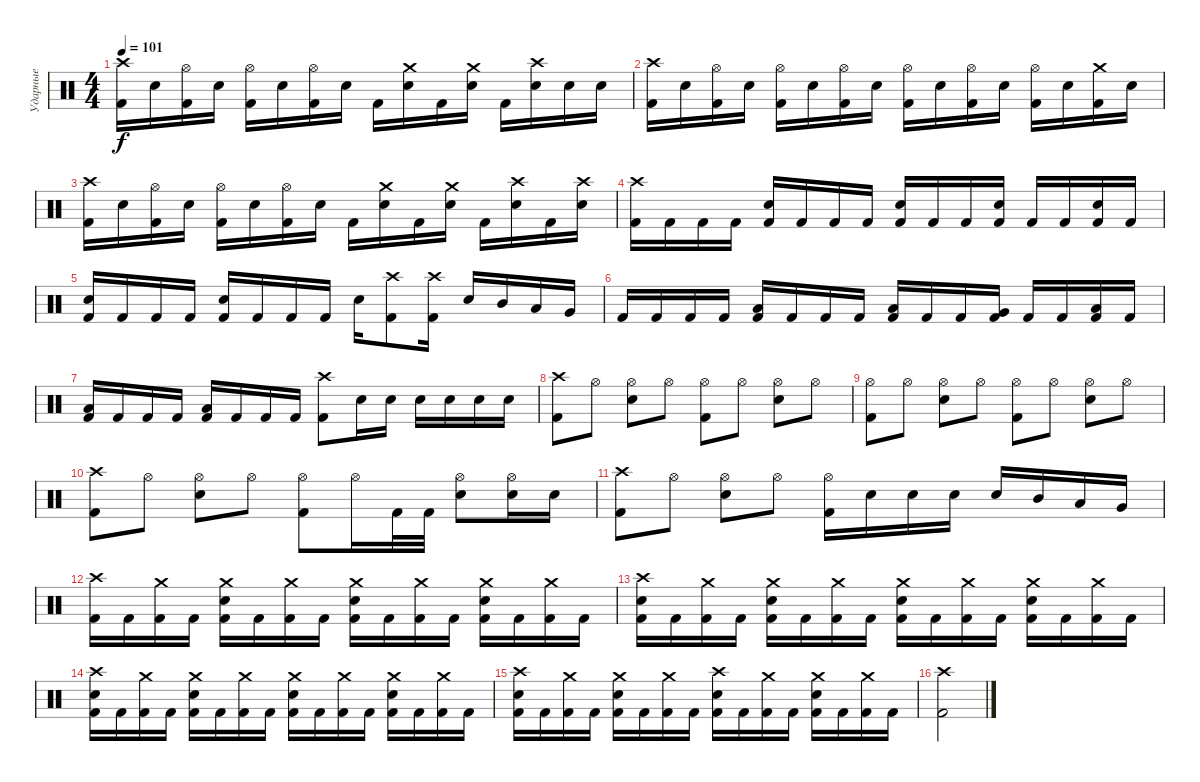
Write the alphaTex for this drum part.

\track ("Ударные" "Ударные") {instrument percussion}
\staff {score}
\articulation defaults
\ts (4 4)
\tempo 101
\clef neutral
\ks c
("Crash high (hit)" "Kick (hit) 2").16{dy f} "Electric Snare (hit)".16 ("Hi-Hat (open)" "Kick (hit) 2").16 "Electric Snare (hit)".16 ("Hi-Hat (open)" "Kick (hit) 2").16 "Electric Snare (hit)".16 ("Hi-Hat (open)" "Kick (hit) 2").16 "Electric Snare (hit)".16 "Kick (hit) 2".16 ("Crash medium (hit)" "Electric Snare (hit)").16 "Kick (hit) 2".16 ("Crash medium (hit)" "Electric Snare (hit)").16 "Kick (hit) 2".16 ("Crash high (hit)" "Electric Snare (hit)").16 "Electric Snare (hit)".16 "Electric Snare (hit)".16 |
("Crash high (hit)" "Kick (hit) 2").16 "Electric Snare (hit)".16 ("Hi-Hat (open)" "Kick (hit) 2").16 "Electric Snare (hit)".16 ("Hi-Hat (open)" "Kick (hit) 2").16 "Electric Snare (hit)".16 ("Hi-Hat (open)" "Kick (hit) 2").16 "Electric Snare (hit)".16 ("Hi-Hat (open)" "Kick (hit) 2").16 "Electric Snare (hit)".16 ("Hi-Hat (open)" "Kick (hit) 2").16 "Electric Snare (hit)".16 ("Hi-Hat (open)" "Kick (hit) 2").16 "Electric Snare (hit)".16 ("Crash medium (hit)" "Kick (hit) 2").16 "Electric Snare (hit)".16 |
("Crash high (hit)" "Kick (hit) 2").16 "Electric Snare (hit)".16 ("Hi-Hat (open)" "Kick (hit) 2").16 "Electric Snare (hit)".16 ("Hi-Hat (open)" "Kick (hit) 2").16 "Electric Snare (hit)".16 ("Hi-Hat (open)" "Kick (hit) 2").16 "Electric Snare (hit)".16 "Kick (hit) 2".16 ("Crash medium (hit)" "Electric Snare (hit)").16 "Kick (hit) 2".16 ("Crash medium (hit)" "Electric Snare (hit)").16 "Kick (hit) 2".16 ("Crash high (hit)" "Electric Snare (hit)").16 "Kick (hit) 2".16 ("Crash high (hit)" "Electric Snare (hit)").16 |
("Crash high (hit)" "Kick (hit) 2").16 "Kick (hit) 2".16 "Kick (hit) 2".16 "Kick (hit) 2".16 ("Electric Snare (hit)" "Kick (hit) 2").16 "Kick (hit) 2".16 "Kick (hit) 2".16 "Kick (hit) 2".16 ("Electric Snare (hit)" "Kick (hit) 2").16 "Kick (hit) 2".16 "Kick (hit) 2".16 ("Electric Snare (hit)" "Kick (hit) 2").16 "Kick (hit) 2".16 "Kick (hit) 2".16 ("Electric Snare (hit)" "Kick (hit) 2").16 "Kick (hit) 2".16 |
("Electric Snare (hit)" "Kick (hit) 2").16 "Kick (hit) 2".16 "Kick (hit) 2".16 "Kick (hit) 2".16 ("Electric Snare (hit)" "Kick (hit) 2").16 "Kick (hit) 2".16 "Kick (hit) 2".16 "Kick (hit) 2".16 "Electric Snare (hit)".16 ("Crash high (hit)" "Kick (hit) 2").8 ("Crash high (hit)" "Kick (hit) 2").16 "Electric Snare (hit)".16 "Mid Tom (hit)".16 "Low Tom (hit)".16 "Very Low Tom (hit)".16 |
"Kick (hit) 2".16 "Kick (hit) 2".16 "Kick (hit) 2".16 "Kick (hit) 2".16 ("Low Tom (hit)" "Kick (hit) 2").16 "Kick (hit) 2".16 "Kick (hit) 2".16 "Kick (hit) 2".16 ("Low Tom (hit)" "Kick (hit) 2").16 "Kick (hit) 2".16 "Kick (hit) 2".16 ("Very Low Tom (hit)" "Kick (hit) 2").16 "Kick (hit) 2".16 "Kick (hit) 2".16 ("Low Floor Tom (hit)" "Kick (hit) 2").16 "Kick (hit) 2".16 |
("Low Floor Tom (hit)" "Kick (hit) 2").16 "Kick (hit) 2".16 "Kick (hit) 2".16 "Kick (hit) 2".16 ("Low Tom (hit)" "Kick (hit) 2").16 "Kick (hit) 2".16 "Kick (hit) 2".16 "Kick (hit) 2".16 ("Crash high (hit)" "Kick (hit) 2").8 "Electric Snare (hit)".16 "Electric Snare (hit)".16 "Electric Snare (hit)".16 "Electric Snare (hit)".16 "Electric Snare (hit)".16 "Electric Snare (hit)".16 |
("Crash high (hit)" "Kick (hit) 2").8 "Hi-Hat (open)".8 ("Hi-Hat (open)" "Electric Snare (hit)").8 "Hi-Hat (open)".8 ("Hi-Hat (open)" "Kick (hit) 2").8 "Hi-Hat (open)".8 ("Hi-Hat (open)" "Electric Snare (hit)").8 "Hi-Hat (open)".8 |
("Hi-Hat (open)" "Kick (hit) 2").8 "Hi-Hat (open)".8 ("Hi-Hat (open)" "Electric Snare (hit)").8 "Hi-Hat (open)".8 ("Hi-Hat (open)" "Kick (hit) 2").8 "Hi-Hat (open)".8 ("Hi-Hat (open)" "Electric Snare (hit)").8 "Hi-Hat (open)".8 |
("Crash high (hit)" "Kick (hit) 2").8 "Hi-Hat (open)".8 ("Hi-Hat (open)" "Electric Snare (hit)").8 "Hi-Hat (open)".8 ("Hi-Hat (open)" "Kick (hit) 2").8 "Hi-Hat (open)".16 "Kick (hit) 2".32 "Kick (hit) 2".32 ("Hi-Hat (open)" "Electric Snare (hit)").8 ("Hi-Hat (open)" "Electric Snare (hit)").16 "Electric Snare (hit)".16 |
("Crash high (hit)" "Kick (hit) 2").8 "Hi-Hat (open)".8 ("Hi-Hat (open)" "Electric Snare (hit)").8 "Hi-Hat (open)".8 ("Hi-Hat (open)" "Kick (hit) 2").16 "Electric Snare (hit)".16 "Electric Snare (hit)".16 "Electric Snare (hit)".16 "Electric Snare (hit)".16 "Mid Tom (hit)".16 "Low Tom (hit)".16 "Very Low Tom (hit)".16 |
("Crash high (hit)" "Kick (hit) 2").16 "Kick (hit) 2".16 ("Crash medium (hit)" "Kick (hit) 2").16 "Kick (hit) 2".16 ("Crash medium (hit)" "Electric Snare (hit)" "Kick (hit) 2").16 "Kick (hit) 2".16 ("Crash medium (hit)" "Kick (hit) 2").16 "Kick (hit) 2".16 ("Crash medium (hit)" "Electric Snare (hit)" "Kick (hit) 2").16 "Kick (hit) 2".16 ("Crash medium (hit)" "Kick (hit) 2").16 "Kick (hit) 2".16 ("Crash medium (hit)" "Electric Snare (hit)" "Kick (hit) 2").16 "Kick (hit) 2".16 ("Crash medium (hit)" "Kick (hit) 2").16 "Kick (hit) 2".16 |
("Crash high (hit)" "Electric Snare (hit)" "Kick (hit) 2").16 "Kick (hit) 2".16 ("Crash medium (hit)" "Kick (hit) 2").16 "Kick (hit) 2".16 ("Crash medium (hit)" "Electric Snare (hit)" "Kick (hit) 2").16 "Kick (hit) 2".16 ("Crash medium (hit)" "Kick (hit) 2").16 "Kick (hit) 2".16 ("Crash medium (hit)" "Electric Snare (hit)" "Kick (hit) 2").16 "Kick (hit) 2".16 ("Crash medium (hit)" "Kick (hit) 2").16 "Kick (hit) 2".16 ("Crash medium (hit)" "Electric Snare (hit)" "Kick (hit) 2").16 "Kick (hit) 2".16 ("Crash medium (hit)" "Kick (hit) 2").16 "Kick (hit) 2".16 |
("Crash high (hit)" "Electric Snare (hit)" "Kick (hit) 2").16 "Kick (hit) 2".16 ("Crash medium (hit)" "Kick (hit) 2").16 "Kick (hit) 2".16 ("Crash medium (hit)" "Electric Snare (hit)" "Kick (hit) 2").16 "Kick (hit) 2".16 ("Crash medium (hit)" "Kick (hit) 2").16 "Kick (hit) 2".16 ("Crash medium (hit)" "Electric Snare (hit)" "Kick (hit) 2").16 "Kick (hit) 2".16 ("Crash medium (hit)" "Kick (hit) 2").16 "Kick (hit) 2".16 ("Crash medium (hit)" "Electric Snare (hit)" "Kick (hit) 2").16 "Kick (hit) 2".16 ("Crash medium (hit)" "Kick (hit) 2").16 "Kick (hit) 2".16 |
("Crash high (hit)" "Electric Snare (hit)" "Kick (hit) 2").16 "Kick (hit) 2".16 ("Crash medium (hit)" "Kick (hit) 2").16 "Kick (hit) 2".16 ("Crash medium (hit)" "Electric Snare (hit)" "Kick (hit) 2").16 "Kick (hit) 2".16 ("Crash medium (hit)" "Kick (hit) 2").16 "Kick (hit) 2".16 ("Crash high (hit)" "Electric Snare (hit)" "Kick (hit) 2").16 "Kick (hit) 2".16 ("Crash medium (hit)" "Kick (hit) 2").16 "Kick (hit) 2".16 ("Crash medium (hit)" "Electric Snare (hit)" "Kick (hit) 2").16 "Kick (hit) 2".16 ("Crash medium (hit)" "Kick (hit) 2").16 "Kick (hit) 2".16 |
("Crash high (hit)" "Kick (hit) 2").2
